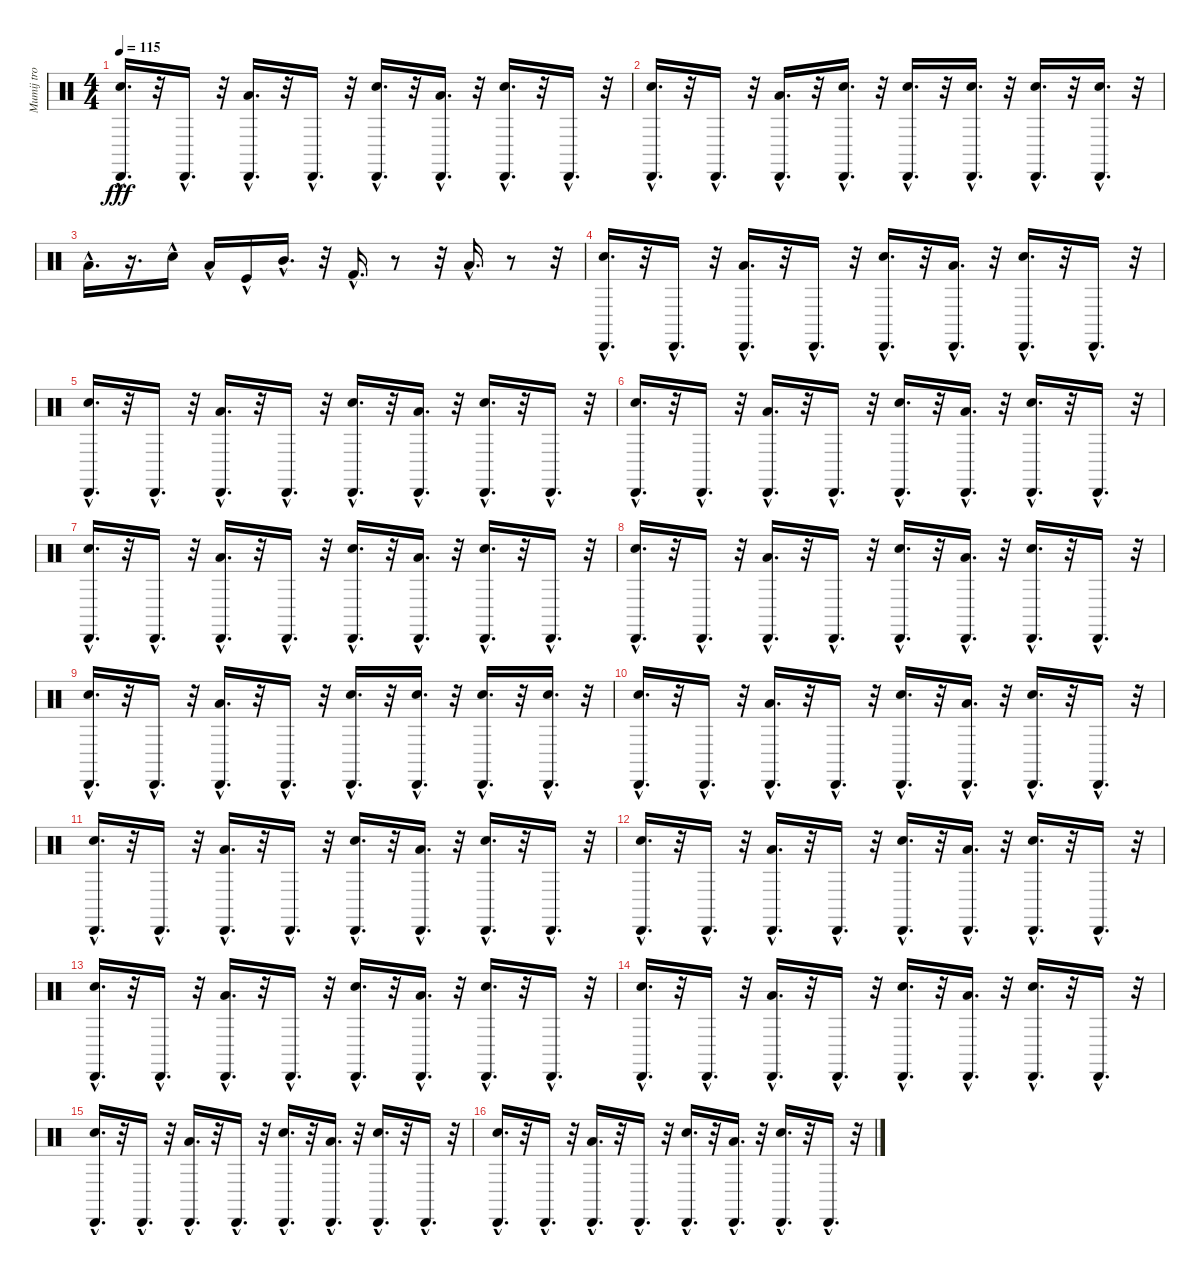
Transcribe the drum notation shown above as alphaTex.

\track (" Mumij troll" " Mumij tro") {instrument percussion}
\staff {score}
\articulation defaults
\ts (4 4)
\tempo 115
\clef neutral
\ks c
("Electric Snare (hit)"{hac} "Cabasa (hit)"{hac}).16{d dy fff} r.32 "Cabasa (hit)"{hac}.16{d} r.32 ("Low Tom (hit)"{hac} "Cabasa (hit)"{hac}).16{d} r.32 "Cabasa (hit)"{hac}.16{d} r.32 ("Electric Snare (hit)"{hac} "Cabasa (hit)"{hac}).16{d} r.32 ("Low Floor Tom (hit)"{hac} "Cabasa (hit)"{hac}).16{d} r.32 ("Snare (hit) 2"{hac} "Cabasa (hit)"{hac}).16{d} r.32 "Cabasa (hit)"{hac}.16{d} r.32 |
("Electric Snare (hit)"{hac} "Cabasa (hit)"{hac}).16{d} r.32 "Cabasa (hit)"{hac}.16{d} r.32 ("Low Tom (hit)"{hac} "Cabasa (hit)"{hac}).16{d} r.32 ("Electric Snare (hit)"{hac} "Cabasa (hit)"{hac}).16{d} r.32 ("Electric Snare (hit)"{hac} "Cabasa (hit)"{hac}).16{d} r.32 ("Electric Snare (hit)"{hac} "Cabasa (hit)"{hac}).16{d} r.32 ("Electric Snare (hit)"{hac} "Cabasa (hit)"{hac}).16{d} r.32 ("Electric Snare (hit)"{hac} "Cabasa (hit)"{hac}).16{d} r.32 |
"Low Tom (hit)"{hac}.16{d} r.16{d} "Snare (hit) 2"{hac}.16 "Low Floor Tom (hit)"{hac}.16 "Kick (hit)"{hac}.16 "Mid Tom (hit)"{hac}.16{d} r.32 "Kick (hit) 2"{hac}.16{d} r.8 r.32 "Low Floor Tom (hit)"{hac}.16{d} r.8 r.32 |
("Electric Snare (hit)"{hac} "Cabasa (hit)"{hac}).16{d} r.32 "Cabasa (hit)"{hac}.16{d} r.32 ("Low Tom (hit)"{hac} "Cabasa (hit)"{hac}).16{d} r.32 "Cabasa (hit)"{hac}.16{d} r.32 ("Electric Snare (hit)"{hac} "Cabasa (hit)"{hac}).16{d} r.32 ("Low Floor Tom (hit)"{hac} "Cabasa (hit)"{hac}).16{d} r.32 ("Snare (hit) 2"{hac} "Cabasa (hit)"{hac}).16{d} r.32 "Cabasa (hit)"{hac}.16{d} r.32 |
("Electric Snare (hit)"{hac} "Cabasa (hit)"{hac}).16{d} r.32 "Cabasa (hit)"{hac}.16{d} r.32 ("Low Tom (hit)"{hac} "Cabasa (hit)"{hac}).16{d} r.32 "Cabasa (hit)"{hac}.16{d} r.32 ("Electric Snare (hit)"{hac} "Cabasa (hit)"{hac}).16{d} r.32 ("Low Floor Tom (hit)"{hac} "Cabasa (hit)"{hac}).16{d} r.32 ("Snare (hit) 2"{hac} "Cabasa (hit)"{hac}).16{d} r.32 "Cabasa (hit)"{hac}.16{d} r.32 |
("Electric Snare (hit)"{hac} "Cabasa (hit)"{hac}).16{d} r.32 "Cabasa (hit)"{hac}.16{d} r.32 ("Low Tom (hit)"{hac} "Cabasa (hit)"{hac}).16{d} r.32 "Cabasa (hit)"{hac}.16{d} r.32 ("Electric Snare (hit)"{hac} "Cabasa (hit)"{hac}).16{d} r.32 ("Low Floor Tom (hit)"{hac} "Cabasa (hit)"{hac}).16{d} r.32 ("Snare (hit) 2"{hac} "Cabasa (hit)"{hac}).16{d} r.32 "Cabasa (hit)"{hac}.16{d} r.32 |
("Electric Snare (hit)"{hac} "Cabasa (hit)"{hac}).16{d} r.32 "Cabasa (hit)"{hac}.16{d} r.32 ("Low Tom (hit)"{hac} "Cabasa (hit)"{hac}).16{d} r.32 "Cabasa (hit)"{hac}.16{d} r.32 ("Electric Snare (hit)"{hac} "Cabasa (hit)"{hac}).16{d} r.32 ("Low Floor Tom (hit)"{hac} "Cabasa (hit)"{hac}).16{d} r.32 ("Snare (hit) 2"{hac} "Cabasa (hit)"{hac}).16{d} r.32 "Cabasa (hit)"{hac}.16{d} r.32 |
("Electric Snare (hit)"{hac} "Cabasa (hit)"{hac}).16{d} r.32 "Cabasa (hit)"{hac}.16{d} r.32 ("Low Tom (hit)"{hac} "Cabasa (hit)"{hac}).16{d} r.32 "Cabasa (hit)"{hac}.16{d} r.32 ("Electric Snare (hit)"{hac} "Cabasa (hit)"{hac}).16{d} r.32 ("Low Floor Tom (hit)"{hac} "Cabasa (hit)"{hac}).16{d} r.32 ("Snare (hit) 2"{hac} "Cabasa (hit)"{hac}).16{d} r.32 "Cabasa (hit)"{hac}.16{d} r.32 |
("Electric Snare (hit)"{hac} "Cabasa (hit)"{hac}).16{d} r.32 "Cabasa (hit)"{hac}.16{d} r.32 ("Low Tom (hit)"{hac} "Cabasa (hit)"{hac}).16{d} r.32 "Cabasa (hit)"{hac}.16{d} r.32 ("Electric Snare (hit)"{hac} "Cabasa (hit)"{hac}).16{d} r.32 ("Electric Snare (hit)"{hac} "Cabasa (hit)"{hac}).16{d} r.32 ("Electric Snare (hit)"{hac} "Cabasa (hit)"{hac}).16{d} r.32 ("Electric Snare (hit)"{hac} "Cabasa (hit)"{hac}).16{d} r.32 |
("Electric Snare (hit)"{hac} "Cabasa (hit)"{hac}).16{d} r.32 "Cabasa (hit)"{hac}.16{d} r.32 ("Low Tom (hit)"{hac} "Cabasa (hit)"{hac}).16{d} r.32 "Cabasa (hit)"{hac}.16{d} r.32 ("Electric Snare (hit)"{hac} "Cabasa (hit)"{hac}).16{d} r.32 ("Low Floor Tom (hit)"{hac} "Cabasa (hit)"{hac}).16{d} r.32 ("Snare (hit) 2"{hac} "Cabasa (hit)"{hac}).16{d} r.32 "Cabasa (hit)"{hac}.16{d} r.32 |
("Electric Snare (hit)"{hac} "Cabasa (hit)"{hac}).16{d} r.32 "Cabasa (hit)"{hac}.16{d} r.32 ("Low Tom (hit)"{hac} "Cabasa (hit)"{hac}).16{d} r.32 "Cabasa (hit)"{hac}.16{d} r.32 ("Electric Snare (hit)"{hac} "Cabasa (hit)"{hac}).16{d} r.32 ("Low Floor Tom (hit)"{hac} "Cabasa (hit)"{hac}).16{d} r.32 ("Snare (hit) 2"{hac} "Cabasa (hit)"{hac}).16{d} r.32 "Cabasa (hit)"{hac}.16{d} r.32 |
("Electric Snare (hit)"{hac} "Cabasa (hit)"{hac}).16{d} r.32 "Cabasa (hit)"{hac}.16{d} r.32 ("Low Tom (hit)"{hac} "Cabasa (hit)"{hac}).16{d} r.32 "Cabasa (hit)"{hac}.16{d} r.32 ("Electric Snare (hit)"{hac} "Cabasa (hit)"{hac}).16{d} r.32 ("Low Floor Tom (hit)"{hac} "Cabasa (hit)"{hac}).16{d} r.32 ("Snare (hit) 2"{hac} "Cabasa (hit)"{hac}).16{d} r.32 "Cabasa (hit)"{hac}.16{d} r.32 |
("Electric Snare (hit)"{hac} "Cabasa (hit)"{hac}).16{d} r.32 "Cabasa (hit)"{hac}.16{d} r.32 ("Low Tom (hit)"{hac} "Cabasa (hit)"{hac}).16{d} r.32 "Cabasa (hit)"{hac}.16{d} r.32 ("Electric Snare (hit)"{hac} "Cabasa (hit)"{hac}).16{d} r.32 ("Low Floor Tom (hit)"{hac} "Cabasa (hit)"{hac}).16{d} r.32 ("Snare (hit) 2"{hac} "Cabasa (hit)"{hac}).16{d} r.32 "Cabasa (hit)"{hac}.16{d} r.32 |
("Electric Snare (hit)"{hac} "Cabasa (hit)"{hac}).16{d} r.32 "Cabasa (hit)"{hac}.16{d} r.32 ("Low Tom (hit)"{hac} "Cabasa (hit)"{hac}).16{d} r.32 "Cabasa (hit)"{hac}.16{d} r.32 ("Electric Snare (hit)"{hac} "Cabasa (hit)"{hac}).16{d} r.32 ("Low Floor Tom (hit)"{hac} "Cabasa (hit)"{hac}).16{d} r.32 ("Snare (hit) 2"{hac} "Cabasa (hit)"{hac}).16{d} r.32 "Cabasa (hit)"{hac}.16{d} r.32 |
("Electric Snare (hit)"{hac} "Cabasa (hit)"{hac}).16{d} r.32 "Cabasa (hit)"{hac}.16{d} r.32 ("Low Tom (hit)"{hac} "Cabasa (hit)"{hac}).16{d} r.32 "Cabasa (hit)"{hac}.16{d} r.32 ("Electric Snare (hit)"{hac} "Cabasa (hit)"{hac}).16{d} r.32 ("Low Floor Tom (hit)"{hac} "Cabasa (hit)"{hac}).16{d} r.32 ("Snare (hit) 2"{hac} "Cabasa (hit)"{hac}).16{d} r.32 "Cabasa (hit)"{hac}.16{d} r.32 |
("Electric Snare (hit)"{hac} "Cabasa (hit)"{hac}).16{d} r.32 "Cabasa (hit)"{hac}.16{d} r.32 ("Low Tom (hit)"{hac} "Cabasa (hit)"{hac}).16{d} r.32 "Cabasa (hit)"{hac}.16{d} r.32 ("Electric Snare (hit)"{hac} "Cabasa (hit)"{hac}).16{d} r.32 ("Low Floor Tom (hit)"{hac} "Cabasa (hit)"{hac}).16{d} r.32 ("Snare (hit) 2"{hac} "Cabasa (hit)"{hac}).16{d} r.32 "Cabasa (hit)"{hac}.16{d} r.32
